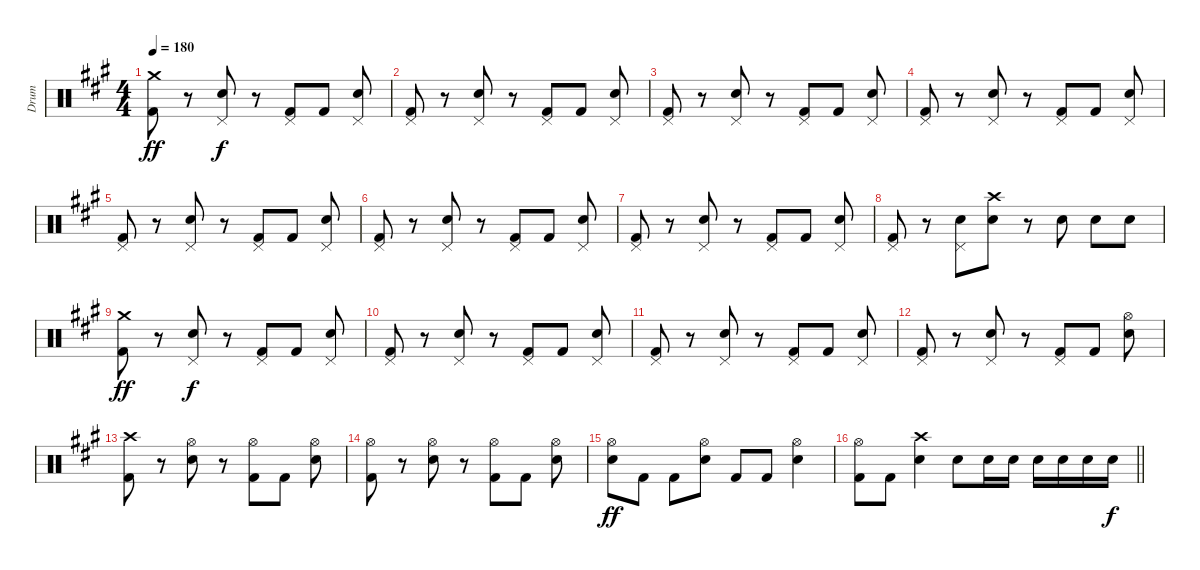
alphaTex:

\track ("Drum" "Drum") {instrument percussion}
\staff {score}
\articulation defaults
\ts (4 4)
\tempo 180
\clef neutral
\ks a
("Crash medium (hit)" "Kick (hit) 2").8{dy ff} r.8 ("Pedal Hi-Hat (hit)" "Snare (hit) 2").8{dy f} r.8 ("Pedal Hi-Hat (hit)" "Kick (hit) 2").8 "Kick (hit) 2".8 ("Pedal Hi-Hat (hit)" "Snare (hit) 2").8 |
("Pedal Hi-Hat (hit)" "Kick (hit) 2").8 r.8 ("Pedal Hi-Hat (hit)" "Snare (hit) 2").8 r.8 ("Pedal Hi-Hat (hit)" "Kick (hit) 2").8 "Kick (hit) 2".8 ("Pedal Hi-Hat (hit)" "Snare (hit) 2").8 |
("Pedal Hi-Hat (hit)" "Kick (hit) 2").8 r.8 ("Pedal Hi-Hat (hit)" "Snare (hit) 2").8 r.8 ("Pedal Hi-Hat (hit)" "Kick (hit) 2").8 "Kick (hit) 2".8 ("Pedal Hi-Hat (hit)" "Snare (hit) 2").8 |
("Pedal Hi-Hat (hit)" "Kick (hit) 2").8 r.8 ("Pedal Hi-Hat (hit)" "Snare (hit) 2").8 r.8 ("Pedal Hi-Hat (hit)" "Kick (hit) 2").8 "Kick (hit) 2".8 ("Pedal Hi-Hat (hit)" "Snare (hit) 2").8 |
("Pedal Hi-Hat (hit)" "Kick (hit) 2").8 r.8 ("Pedal Hi-Hat (hit)" "Snare (hit) 2").8 r.8 ("Pedal Hi-Hat (hit)" "Kick (hit) 2").8 "Kick (hit) 2".8 ("Pedal Hi-Hat (hit)" "Snare (hit) 2").8 |
("Pedal Hi-Hat (hit)" "Kick (hit) 2").8 r.8 ("Pedal Hi-Hat (hit)" "Snare (hit) 2").8 r.8 ("Pedal Hi-Hat (hit)" "Kick (hit) 2").8 "Kick (hit) 2".8 ("Pedal Hi-Hat (hit)" "Snare (hit) 2").8 |
("Pedal Hi-Hat (hit)" "Kick (hit) 2").8 r.8 ("Pedal Hi-Hat (hit)" "Snare (hit) 2").8 r.8 ("Pedal Hi-Hat (hit)" "Kick (hit) 2").8 "Kick (hit) 2".8 ("Pedal Hi-Hat (hit)" "Snare (hit) 2").8 |
("Pedal Hi-Hat (hit)" "Kick (hit) 2").8 r.8 ("Pedal Hi-Hat (hit)" "Snare (hit) 2").8 ("Crash high (hit)" "Snare (hit) 2").8 r.8 "Snare (hit) 2".8 "Snare (hit) 2".8 "Snare (hit) 2".8 |
("Crash medium (hit)" "Kick (hit) 2").8{dy ff} r.8 ("Pedal Hi-Hat (hit)" "Snare (hit) 2").8{dy f} r.8 ("Pedal Hi-Hat (hit)" "Kick (hit) 2").8 "Kick (hit) 2".8 ("Pedal Hi-Hat (hit)" "Snare (hit) 2").8 |
("Pedal Hi-Hat (hit)" "Kick (hit) 2").8 r.8 ("Pedal Hi-Hat (hit)" "Snare (hit) 2").8 r.8 ("Pedal Hi-Hat (hit)" "Kick (hit) 2").8 "Kick (hit) 2".8 ("Pedal Hi-Hat (hit)" "Snare (hit) 2").8 |
("Pedal Hi-Hat (hit)" "Kick (hit) 2").8 r.8 ("Pedal Hi-Hat (hit)" "Snare (hit) 2").8 r.8 ("Pedal Hi-Hat (hit)" "Kick (hit) 2").8 "Kick (hit) 2".8 ("Pedal Hi-Hat (hit)" "Snare (hit) 2").8 |
("Pedal Hi-Hat (hit)" "Kick (hit) 2").8 r.8 ("Pedal Hi-Hat (hit)" "Snare (hit) 2").8 r.8 ("Pedal Hi-Hat (hit)" "Kick (hit) 2").8 "Kick (hit) 2".8 ("Hi-Hat (open)" "Snare (hit) 2").8 |
("Crash high (hit)" "Kick (hit) 2").8 r.8 ("Hi-Hat (open)" "Snare (hit) 2").8 r.8 ("Hi-Hat (open)" "Kick (hit) 2").8 "Kick (hit) 2".8 ("Hi-Hat (open)" "Snare (hit) 2").8 |
("Hi-Hat (open)" "Kick (hit) 2").8 r.8 ("Hi-Hat (open)" "Snare (hit) 2").8 r.8 ("Hi-Hat (open)" "Kick (hit) 2").8 "Kick (hit) 2".8 ("Hi-Hat (open)" "Snare (hit) 2").8 |
("Hi-Hat (open)" "Snare (hit) 2").8{dy ff} "Kick (hit) 2".8 "Kick (hit) 2".8 ("Hi-Hat (open)" "Snare (hit) 2").8 "Kick (hit) 2".8 "Kick (hit) 2".8 ("Hi-Hat (open)" "Snare (hit) 2").4 |
\barLineRight lightlight
("Hi-Hat (open)" "Kick (hit) 2").8 "Kick (hit) 2".8 ("Crash high (hit)" "Snare (hit) 2").4 "Snare (hit) 2".8 "Snare (hit) 2".16 "Snare (hit) 2".16 "Snare (hit) 2".16 "Snare (hit) 2".16 "Snare (hit) 2".16 "Snare (hit) 2".16{dy f}
